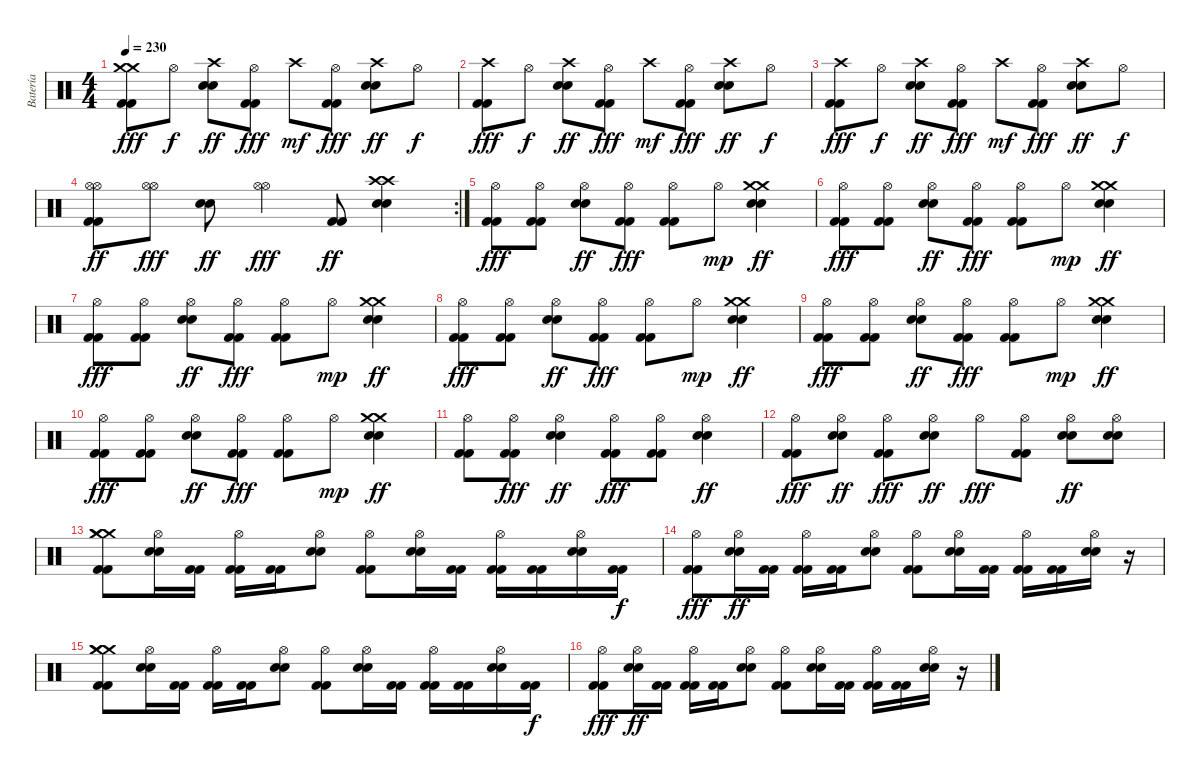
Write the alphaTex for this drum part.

\track ("Batería" "Batería") {instrument percussion}
\staff {score}
\articulation defaults
\ts (4 4)
\tempo 230
\clef neutral
\ks c
("Crash medium (hit)" "Crash medium (hit)" "Kick (hit) 2" "Kick (hit) 2").8{dy fff} "Hi-Hat (open)".8{dy f} ("Crash high (hit)" "Electric Snare (hit)" "Electric Snare (hit)").8{dy ff} ("Hi-Hat (open)" "Kick (hit) 2" "Kick (hit) 2").8{dy fff} "Crash high (hit)".8{dy mf} ("Hi-Hat (open)" "Kick (hit) 2" "Kick (hit) 2").8{dy fff} ("Crash high (hit)" "Electric Snare (hit)" "Electric Snare (hit)").8{dy ff} "Hi-Hat (open)".8{dy f} |
("Crash high (hit)" "Kick (hit) 2" "Kick (hit) 2").8{dy fff} "Hi-Hat (open)".8{dy f} ("Crash high (hit)" "Electric Snare (hit)" "Electric Snare (hit)").8{dy ff} ("Hi-Hat (open)" "Kick (hit) 2" "Kick (hit) 2").8{dy fff} "Crash high (hit)".8{dy mf} ("Hi-Hat (open)" "Kick (hit) 2" "Kick (hit) 2").8{dy fff} ("Crash high (hit)" "Electric Snare (hit)" "Electric Snare (hit)").8{dy ff} "Hi-Hat (open)".8{dy f} |
("Crash high (hit)" "Kick (hit) 2" "Kick (hit) 2").8{dy fff} "Hi-Hat (open)".8{dy f} ("Crash high (hit)" "Electric Snare (hit)" "Electric Snare (hit)").8{dy ff} ("Hi-Hat (open)" "Kick (hit) 2" "Kick (hit) 2").8{dy fff} "Crash high (hit)".8{dy mf} ("Hi-Hat (open)" "Kick (hit) 2" "Kick (hit) 2").8{dy fff} ("Crash high (hit)" "Electric Snare (hit)" "Electric Snare (hit)").8{dy ff} "Hi-Hat (open)".8{dy f} |
\rc 2
("Hi-Hat (open)" "Hi-Hat (open)" "Kick (hit) 2" "Kick (hit) 2").8{dy ff} ("Hi-Hat (open)" "Hi-Hat (open)").8{dy fff} ("Electric Snare (hit)" "Electric Snare (hit)").8{dy ff} ("Hi-Hat (open)" "Hi-Hat (open)").4{dy fff} ("Kick (hit) 2" "Kick (hit) 2").8{dy ff} ("Crash high (hit)" "Crash high (hit)" "Electric Snare (hit)" "Electric Snare (hit)").4 |
("Hi-Hat (open)" "Kick (hit) 2" "Kick (hit) 2").8{dy fff} ("Hi-Hat (open)" "Kick (hit) 2" "Kick (hit) 2").8 ("Hi-Hat (open)" "Electric Snare (hit)" "Electric Snare (hit)").8{dy ff} ("Hi-Hat (open)" "Kick (hit) 2" "Kick (hit) 2").8{dy fff} ("Hi-Hat (open)" "Kick (hit) 2" "Kick (hit) 2").8 "Hi-Hat (open)".8{dy mp} ("Crash medium (hit)" "Crash medium (hit)" "Electric Snare (hit)" "Electric Snare (hit)").4{dy ff} |
("Hi-Hat (open)" "Kick (hit) 2" "Kick (hit) 2").8{dy fff} ("Hi-Hat (open)" "Kick (hit) 2" "Kick (hit) 2").8 ("Hi-Hat (open)" "Electric Snare (hit)" "Electric Snare (hit)").8{dy ff} ("Hi-Hat (open)" "Kick (hit) 2" "Kick (hit) 2").8{dy fff} ("Hi-Hat (open)" "Kick (hit) 2" "Kick (hit) 2").8 "Hi-Hat (open)".8{dy mp} ("Crash medium (hit)" "Crash medium (hit)" "Electric Snare (hit)" "Electric Snare (hit)").4{dy ff} |
("Hi-Hat (open)" "Kick (hit) 2" "Kick (hit) 2").8{dy fff} ("Hi-Hat (open)" "Kick (hit) 2" "Kick (hit) 2").8 ("Hi-Hat (open)" "Electric Snare (hit)" "Electric Snare (hit)").8{dy ff} ("Hi-Hat (open)" "Kick (hit) 2" "Kick (hit) 2").8{dy fff} ("Hi-Hat (open)" "Kick (hit) 2" "Kick (hit) 2").8 "Hi-Hat (open)".8{dy mp} ("Crash medium (hit)" "Crash medium (hit)" "Electric Snare (hit)" "Electric Snare (hit)").4{dy ff} |
("Hi-Hat (open)" "Kick (hit) 2" "Kick (hit) 2").8{dy fff} ("Hi-Hat (open)" "Kick (hit) 2" "Kick (hit) 2").8 ("Hi-Hat (open)" "Electric Snare (hit)" "Electric Snare (hit)").8{dy ff} ("Hi-Hat (open)" "Kick (hit) 2" "Kick (hit) 2").8{dy fff} ("Hi-Hat (open)" "Kick (hit) 2" "Kick (hit) 2").8 "Hi-Hat (open)".8{dy mp} ("Crash medium (hit)" "Crash medium (hit)" "Electric Snare (hit)" "Electric Snare (hit)").4{dy ff} |
("Hi-Hat (open)" "Kick (hit) 2" "Kick (hit) 2").8{dy fff} ("Hi-Hat (open)" "Kick (hit) 2" "Kick (hit) 2").8 ("Hi-Hat (open)" "Electric Snare (hit)" "Electric Snare (hit)").8{dy ff} ("Hi-Hat (open)" "Kick (hit) 2" "Kick (hit) 2").8{dy fff} ("Hi-Hat (open)" "Kick (hit) 2" "Kick (hit) 2").8 "Hi-Hat (open)".8{dy mp} ("Crash medium (hit)" "Crash medium (hit)" "Electric Snare (hit)" "Electric Snare (hit)").4{dy ff} |
("Hi-Hat (open)" "Kick (hit) 2" "Kick (hit) 2").8{dy fff} ("Hi-Hat (open)" "Kick (hit) 2" "Kick (hit) 2").8 ("Hi-Hat (open)" "Electric Snare (hit)" "Electric Snare (hit)").8{dy ff} ("Hi-Hat (open)" "Kick (hit) 2" "Kick (hit) 2").8{dy fff} ("Hi-Hat (open)" "Kick (hit) 2" "Kick (hit) 2").8 "Hi-Hat (open)".8{dy mp} ("Crash medium (hit)" "Crash medium (hit)" "Electric Snare (hit)" "Electric Snare (hit)").4{dy ff} |
("Hi-Hat (open)" "Kick (hit) 2" "Kick (hit) 2").8 ("Hi-Hat (open)" "Kick (hit) 2" "Kick (hit) 2").8{dy fff} ("Hi-Hat (open)" "Electric Snare (hit)" "Electric Snare (hit)").4{dy ff} ("Hi-Hat (open)" "Kick (hit) 2" "Kick (hit) 2").8{dy fff} ("Hi-Hat (open)" "Kick (hit) 2" "Kick (hit) 2").8 ("Hi-Hat (open)" "Electric Snare (hit)" "Electric Snare (hit)").4{dy ff} |
("Hi-Hat (open)" "Kick (hit) 2" "Kick (hit) 2").8{dy fff} ("Hi-Hat (open)" "Electric Snare (hit)" "Electric Snare (hit)").8{dy ff} ("Hi-Hat (open)" "Kick (hit) 2" "Kick (hit) 2").8{dy fff} ("Hi-Hat (open)" "Electric Snare (hit)" "Electric Snare (hit)").8{dy ff} "Hi-Hat (open)".8{dy fff} ("Hi-Hat (open)" "Kick (hit) 2" "Kick (hit) 2").8 ("Hi-Hat (open)" "Electric Snare (hit)" "Electric Snare (hit)").8{dy ff} ("Hi-Hat (open)" "Electric Snare (hit)" "Electric Snare (hit)").8 |
("Crash medium (hit)" "Crash medium (hit)" "Crash medium (hit)" "Kick (hit) 2" "Kick (hit) 2").8 ("Hi-Hat (open)" "Electric Snare (hit)" "Electric Snare (hit)").16 ("Kick (hit) 2" "Kick (hit) 2").16 ("Hi-Hat (open)" "Kick (hit) 2" "Kick (hit) 2").16 ("Kick (hit) 2" "Kick (hit) 2").16 ("Hi-Hat (open)" "Electric Snare (hit)" "Electric Snare (hit)").8 ("Hi-Hat (open)" "Kick (hit) 2" "Kick (hit) 2").8 ("Hi-Hat (open)" "Electric Snare (hit)" "Electric Snare (hit)").16 ("Kick (hit) 2" "Kick (hit) 2").16 ("Hi-Hat (open)" "Kick (hit) 2" "Kick (hit) 2").16 ("Kick (hit) 2" "Kick (hit) 2").16 ("Hi-Hat (open)" "Electric Snare (hit)" "Electric Snare (hit)").16 ("Kick (hit) 2" "Kick (hit) 2").16{dy f} |
("Hi-Hat (open)" "Kick (hit) 2" "Kick (hit) 2").8{dy fff} ("Hi-Hat (open)" "Electric Snare (hit)" "Electric Snare (hit)").16{dy ff} ("Kick (hit) 2" "Kick (hit) 2").16 ("Hi-Hat (open)" "Kick (hit) 2" "Kick (hit) 2").16 ("Kick (hit) 2" "Kick (hit) 2").16 ("Hi-Hat (open)" "Electric Snare (hit)" "Electric Snare (hit)").8 ("Hi-Hat (open)" "Kick (hit) 2" "Kick (hit) 2").8 ("Hi-Hat (open)" "Electric Snare (hit)" "Electric Snare (hit)").16 ("Kick (hit) 2" "Kick (hit) 2").16 ("Hi-Hat (open)" "Kick (hit) 2" "Kick (hit) 2").16 ("Kick (hit) 2" "Kick (hit) 2").16 ("Hi-Hat (open)" "Electric Snare (hit)" "Electric Snare (hit)").16 r.16 |
("Crash medium (hit)" "Crash medium (hit)" "Crash medium (hit)" "Kick (hit) 2" "Kick (hit) 2").8 ("Hi-Hat (open)" "Electric Snare (hit)" "Electric Snare (hit)").16 ("Kick (hit) 2" "Kick (hit) 2").16 ("Hi-Hat (open)" "Kick (hit) 2" "Kick (hit) 2").16 ("Kick (hit) 2" "Kick (hit) 2").16 ("Hi-Hat (open)" "Electric Snare (hit)" "Electric Snare (hit)").8 ("Hi-Hat (open)" "Kick (hit) 2" "Kick (hit) 2").8 ("Hi-Hat (open)" "Electric Snare (hit)" "Electric Snare (hit)").16 ("Kick (hit) 2" "Kick (hit) 2").16 ("Hi-Hat (open)" "Kick (hit) 2" "Kick (hit) 2").16 ("Kick (hit) 2" "Kick (hit) 2").16 ("Hi-Hat (open)" "Electric Snare (hit)" "Electric Snare (hit)").16 ("Kick (hit) 2" "Kick (hit) 2").16{dy f} |
("Hi-Hat (open)" "Kick (hit) 2" "Kick (hit) 2").8{dy fff} ("Hi-Hat (open)" "Electric Snare (hit)" "Electric Snare (hit)").16{dy ff} ("Kick (hit) 2" "Kick (hit) 2").16 ("Hi-Hat (open)" "Kick (hit) 2" "Kick (hit) 2").16 ("Kick (hit) 2" "Kick (hit) 2").16 ("Hi-Hat (open)" "Electric Snare (hit)" "Electric Snare (hit)").8 ("Hi-Hat (open)" "Kick (hit) 2" "Kick (hit) 2").8 ("Hi-Hat (open)" "Electric Snare (hit)" "Electric Snare (hit)").16 ("Kick (hit) 2" "Kick (hit) 2").16 ("Hi-Hat (open)" "Kick (hit) 2" "Kick (hit) 2").16 ("Kick (hit) 2" "Kick (hit) 2").16 ("Hi-Hat (open)" "Electric Snare (hit)" "Electric Snare (hit)").16 r.16
